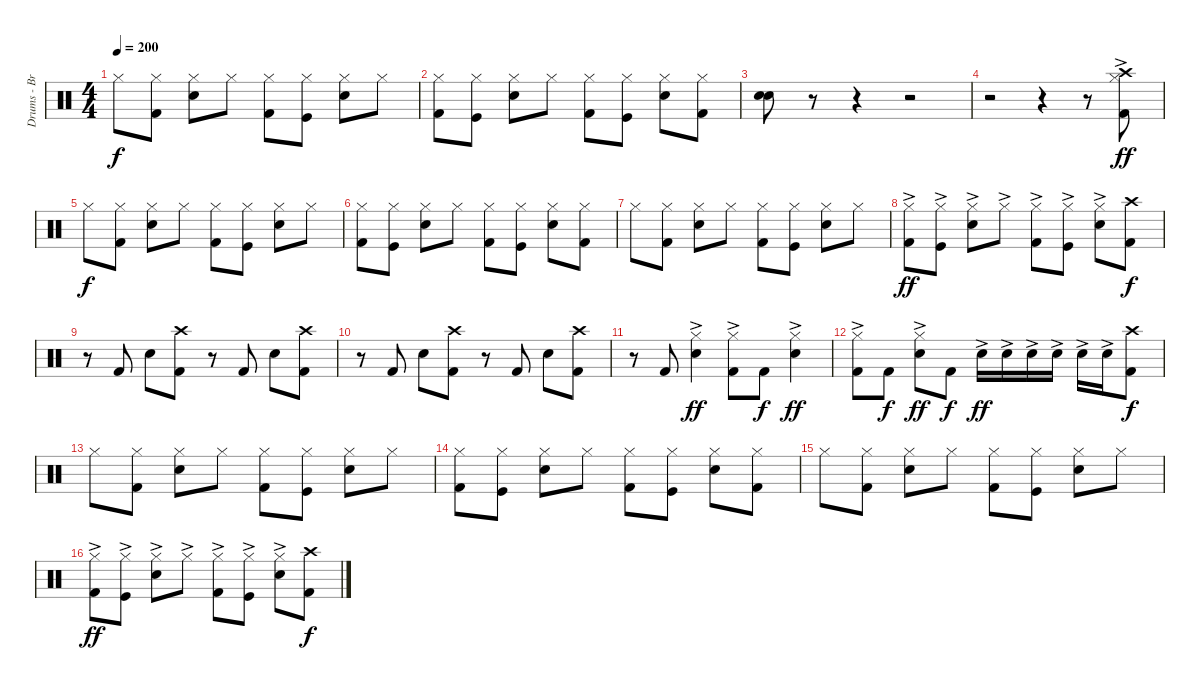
\track ("Drums - Brandon Barnes" "Drums - Br") {instrument percussion}
\staff {score}
\articulation defaults
\ts (4 4)
\tempo 200
\clef neutral
\ks c "Hi-Hat (closed)".8{dy f}
("Hi-Hat (closed)" "Kick (hit) 2").8 ("Hi-Hat (closed)" "Snare (hit) 2").8 "Hi-Hat (closed)".8 ("Kick (hit) 2" "Hi-Hat (closed)").8 ("Hi-Hat (closed)" "Kick (hit)").8 ("Snare (hit) 2" "Hi-Hat (closed)").8 "Hi-Hat (closed)".8 |
("Kick (hit) 2" "Hi-Hat (closed)").8 ("Hi-Hat (closed)" "Kick (hit)").8 ("Snare (hit) 2" "Hi-Hat (closed)").8 "Hi-Hat (closed)".8 ("Kick (hit) 2" "Hi-Hat (closed)").8 ("Hi-Hat (closed)" "Kick (hit)").8 ("Snare (hit) 2" "Hi-Hat (closed)").8 ("Hi-Hat (closed)" "Kick (hit) 2").8 |
("Snare (hit) 2" "Electric Snare (hit)").8 r.8 r.4 r.2 |
r.2 r.4 r.8 ("Kick (hit) 2" "Hi-Hat (closed)"{ac} "Crash high (hit)").8{dy ff} |
"Hi-Hat (closed)".8{dy f} ("Hi-Hat (closed)" "Kick (hit) 2").8 ("Hi-Hat (closed)" "Snare (hit) 2").8 "Hi-Hat (closed)".8 ("Kick (hit) 2" "Hi-Hat (closed)").8 ("Hi-Hat (closed)" "Kick (hit)").8 ("Snare (hit) 2" "Hi-Hat (closed)").8 "Hi-Hat (closed)".8 |
("Kick (hit) 2" "Hi-Hat (closed)").8 ("Hi-Hat (closed)" "Kick (hit)").8 ("Snare (hit) 2" "Hi-Hat (closed)").8 "Hi-Hat (closed)".8 ("Kick (hit) 2" "Hi-Hat (closed)").8 ("Hi-Hat (closed)" "Kick (hit)").8 ("Snare (hit) 2" "Hi-Hat (closed)").8 ("Hi-Hat (closed)" "Kick (hit) 2").8 |
"Hi-Hat (closed)".8 ("Hi-Hat (closed)" "Kick (hit) 2").8 ("Hi-Hat (closed)" "Snare (hit) 2").8 "Hi-Hat (closed)".8 ("Kick (hit) 2" "Hi-Hat (closed)").8 ("Hi-Hat (closed)" "Kick (hit)").8 ("Snare (hit) 2" "Hi-Hat (closed)").8 "Hi-Hat (closed)".8 |
("Kick (hit) 2" "Hi-Hat (closed)"{ac}).8{dy ff} ("Hi-Hat (closed)"{ac} "Kick (hit)").8 ("Snare (hit) 2" "Hi-Hat (closed)"{ac}).8 "Hi-Hat (closed)"{ac}.8 ("Kick (hit) 2" "Hi-Hat (closed)"{ac}).8 ("Hi-Hat (closed)"{ac} "Kick (hit)").8 ("Snare (hit) 2" "Hi-Hat (closed)"{ac}).8 ("Kick (hit) 2" "Crash high (hit)").8{dy f} |
r.8 "Kick (hit) 2".8 "Snare (hit) 2".8 ("Kick (hit) 2" "Crash high (hit)").8 r.8 "Kick (hit) 2".8 "Snare (hit) 2".8 ("Kick (hit) 2" "Crash high (hit)").8 |
r.8 "Kick (hit) 2".8 "Snare (hit) 2".8 ("Kick (hit) 2" "Crash high (hit)").8 r.8 "Kick (hit) 2".8 "Snare (hit) 2".8 ("Kick (hit) 2" "Crash high (hit)").8 |
r.8 "Kick (hit) 2".8 ("Snare (hit) 2" "Hi-Hat (closed)"{ac}).4{dy ff} ("Hi-Hat (closed)"{ac} "Kick (hit) 2").8 "Kick (hit) 2".8{dy f} ("Snare (hit) 2" "Hi-Hat (closed)"{ac}).4{dy ff} |
("Hi-Hat (closed)"{ac} "Kick (hit) 2").8 "Kick (hit) 2".8{dy f} ("Electric Snare (hit)" "Hi-Hat (closed)"{ac}).8{dy ff} "Kick (hit) 2".8{dy f} "Snare (hit) 2"{ac}.16{dy ff} "Snare (hit) 2"{ac}.16 "Snare (hit) 2"{ac}.16 "Snare (hit) 2"{ac}.16 "Snare (hit) 2"{ac}.16 "Snare (hit) 2"{ac}.16 ("Kick (hit) 2" "Crash high (hit)").8{dy f} |
"Hi-Hat (closed)".8 ("Hi-Hat (closed)" "Kick (hit) 2").8 ("Hi-Hat (closed)" "Snare (hit) 2").8 "Hi-Hat (closed)".8 ("Kick (hit) 2" "Hi-Hat (closed)").8 ("Hi-Hat (closed)" "Kick (hit)").8 ("Snare (hit) 2" "Hi-Hat (closed)").8 "Hi-Hat (closed)".8 |
("Kick (hit) 2" "Hi-Hat (closed)").8 ("Hi-Hat (closed)" "Kick (hit)").8 ("Snare (hit) 2" "Hi-Hat (closed)").8 "Hi-Hat (closed)".8 ("Kick (hit) 2" "Hi-Hat (closed)").8 ("Hi-Hat (closed)" "Kick (hit)").8 ("Snare (hit) 2" "Hi-Hat (closed)").8 ("Hi-Hat (closed)" "Kick (hit) 2").8 |
"Hi-Hat (closed)".8 ("Hi-Hat (closed)" "Kick (hit) 2").8 ("Hi-Hat (closed)" "Snare (hit) 2").8 "Hi-Hat (closed)".8 ("Kick (hit) 2" "Hi-Hat (closed)").8 ("Hi-Hat (closed)" "Kick (hit)").8 ("Snare (hit) 2" "Hi-Hat (closed)").8 "Hi-Hat (closed)".8 |
("Kick (hit) 2" "Hi-Hat (closed)"{ac}).8{dy ff} ("Hi-Hat (closed)"{ac} "Kick (hit)").8 ("Snare (hit) 2" "Hi-Hat (closed)"{ac}).8 "Hi-Hat (closed)"{ac}.8 ("Kick (hit) 2" "Hi-Hat (closed)"{ac}).8 ("Hi-Hat (closed)"{ac} "Kick (hit)").8 ("Snare (hit) 2" "Hi-Hat (closed)"{ac}).8 ("Kick (hit) 2" "Crash high (hit)").8{dy f}
